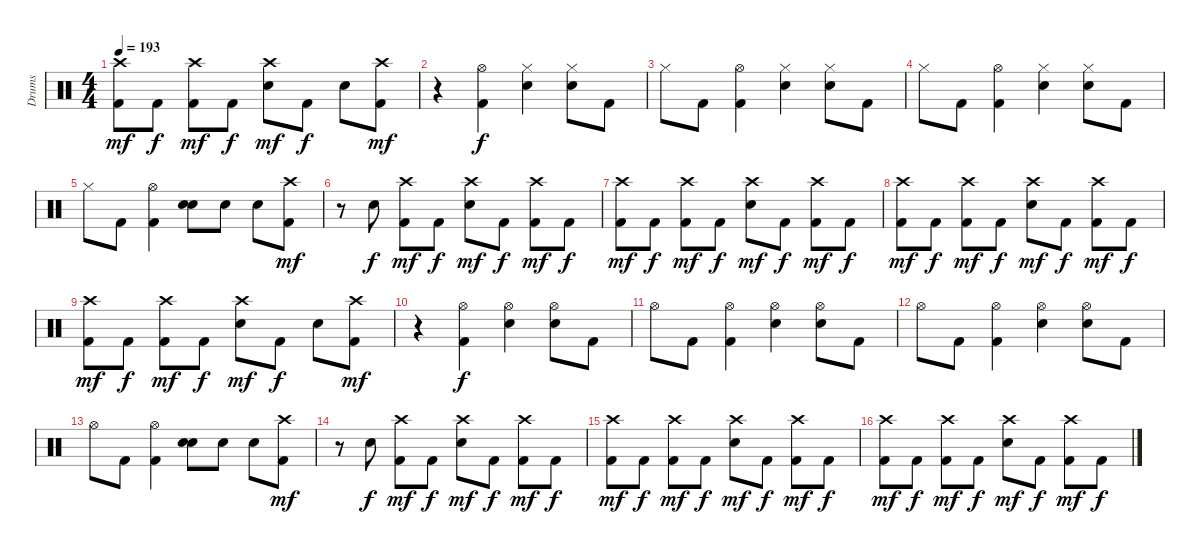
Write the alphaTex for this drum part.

\track ("Drums" "Drums") {instrument percussion}
\staff {score}
\articulation defaults
\ts (4 4)
\tempo 193
\clef neutral
\ks c
("Crash high (hit)" "Kick (hit) 2").8{dy mf} "Kick (hit) 2".8{dy f} ("Crash high (hit)" "Kick (hit) 2").8{dy mf} "Kick (hit) 2".8{dy f} ("Crash high (hit)" "Electric Snare (hit)").8{dy mf} "Kick (hit) 2".8{dy f} "Electric Snare (hit)".8 ("Crash high (hit)" "Kick (hit) 2").8{dy mf} |
r.4 ("Hi-Hat (open)" "Kick (hit) 2").4{dy f} ("Hi-Hat (closed)" "Electric Snare (hit)").4 ("Hi-Hat (closed)" "Electric Snare (hit)").8 "Kick (hit) 2".8 |
"Hi-Hat (closed)".8 "Kick (hit) 2".8 ("Hi-Hat (open)" "Kick (hit) 2").4 ("Hi-Hat (closed)" "Electric Snare (hit)").4 ("Hi-Hat (closed)" "Electric Snare (hit)").8 "Kick (hit) 2".8 |
"Hi-Hat (closed)".8 "Kick (hit) 2".8 ("Hi-Hat (open)" "Kick (hit) 2").4 ("Hi-Hat (closed)" "Electric Snare (hit)").4 ("Hi-Hat (closed)" "Electric Snare (hit)").8 "Kick (hit) 2".8 |
"Hi-Hat (closed)".8 "Kick (hit) 2".8 ("Hi-Hat (open)" "Kick (hit) 2").4 ("Electric Snare (hit)" "Electric Snare (hit)").8{bd 120} "Electric Snare (hit)".8 "Electric Snare (hit)".8 ("Crash high (hit)" "Kick (hit) 2").8{dy mf} |
r.8 "Electric Snare (hit)".8{dy f} ("Crash high (hit)" "Kick (hit) 2").8{dy mf} "Kick (hit) 2".8{dy f} ("Crash high (hit)" "Electric Snare (hit)").8{dy mf} "Kick (hit) 2".8{dy f} ("Crash high (hit)" "Kick (hit) 2").8{dy mf} "Kick (hit) 2".8{dy f} |
("Crash high (hit)" "Kick (hit) 2").8{dy mf} "Kick (hit) 2".8{dy f} ("Crash high (hit)" "Kick (hit) 2").8{dy mf} "Kick (hit) 2".8{dy f} ("Crash high (hit)" "Electric Snare (hit)").8{dy mf} "Kick (hit) 2".8{dy f} ("Crash high (hit)" "Kick (hit) 2").8{dy mf} "Kick (hit) 2".8{dy f} |
("Crash high (hit)" "Kick (hit) 2").8{dy mf} "Kick (hit) 2".8{dy f} ("Crash high (hit)" "Kick (hit) 2").8{dy mf} "Kick (hit) 2".8{dy f} ("Crash high (hit)" "Electric Snare (hit)").8{dy mf} "Kick (hit) 2".8{dy f} ("Crash high (hit)" "Kick (hit) 2").8{dy mf} "Kick (hit) 2".8{dy f} |
("Crash high (hit)" "Kick (hit) 2").8{dy mf} "Kick (hit) 2".8{dy f} ("Crash high (hit)" "Kick (hit) 2").8{dy mf} "Kick (hit) 2".8{dy f} ("Crash high (hit)" "Electric Snare (hit)").8{dy mf} "Kick (hit) 2".8{dy f} "Electric Snare (hit)".8 ("Crash high (hit)" "Kick (hit) 2").8{dy mf} |
r.4 ("Hi-Hat (open)" "Kick (hit) 2").4{dy f} ("Hi-Hat (open)" "Electric Snare (hit)").4 ("Hi-Hat (open)" "Electric Snare (hit)").8 "Kick (hit) 2".8 |
"Hi-Hat (open)".8 "Kick (hit) 2".8 ("Hi-Hat (open)" "Kick (hit) 2").4 ("Hi-Hat (open)" "Electric Snare (hit)").4 ("Hi-Hat (open)" "Electric Snare (hit)").8 "Kick (hit) 2".8 |
"Hi-Hat (open)".8 "Kick (hit) 2".8 ("Hi-Hat (open)" "Kick (hit) 2").4 ("Hi-Hat (open)" "Electric Snare (hit)").4 ("Hi-Hat (open)" "Electric Snare (hit)").8 "Kick (hit) 2".8 |
"Hi-Hat (open)".8 "Kick (hit) 2".8 ("Hi-Hat (open)" "Kick (hit) 2").4 ("Electric Snare (hit)" "Electric Snare (hit)").8{bd 120} "Electric Snare (hit)".8 "Electric Snare (hit)".8 ("Crash high (hit)" "Kick (hit) 2").8{dy mf} |
r.8 "Electric Snare (hit)".8{dy f} ("Crash high (hit)" "Kick (hit) 2").8{dy mf} "Kick (hit) 2".8{dy f} ("Crash high (hit)" "Electric Snare (hit)").8{dy mf} "Kick (hit) 2".8{dy f} ("Crash high (hit)" "Kick (hit) 2").8{dy mf} "Kick (hit) 2".8{dy f} |
("Crash high (hit)" "Kick (hit) 2").8{dy mf} "Kick (hit) 2".8{dy f} ("Crash high (hit)" "Kick (hit) 2").8{dy mf} "Kick (hit) 2".8{dy f} ("Crash high (hit)" "Electric Snare (hit)").8{dy mf} "Kick (hit) 2".8{dy f} ("Crash high (hit)" "Kick (hit) 2").8{dy mf} "Kick (hit) 2".8{dy f} |
("Crash high (hit)" "Kick (hit) 2").8{dy mf} "Kick (hit) 2".8{dy f} ("Crash high (hit)" "Kick (hit) 2").8{dy mf} "Kick (hit) 2".8{dy f} ("Crash high (hit)" "Electric Snare (hit)").8{dy mf} "Kick (hit) 2".8{dy f} ("Crash high (hit)" "Kick (hit) 2").8{dy mf} "Kick (hit) 2".8{dy f}
